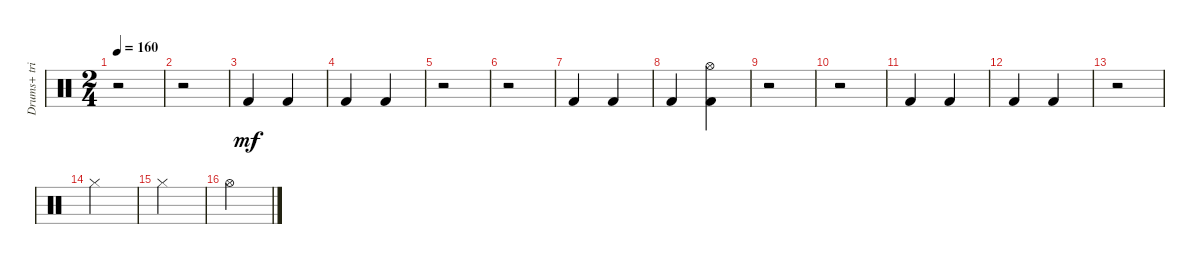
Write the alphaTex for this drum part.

\track ("Drums+ triangle" "Drums+ tri") {instrument percussion}
\staff {score}
\articulation defaults
\ts (2 4)
\tempo 160
\clef neutral
\ks c
r.2{dy mf} |
r.2 |
"Kick (hit) 2".4 "Kick (hit) 2".4 |
"Kick (hit) 2".4 "Kick (hit) 2".4 |
r.2 |
r.2 |
"Kick (hit) 2".4 "Kick (hit) 2".4 |
"Kick (hit) 2".4 ("Kick (hit) 2" "Hi-Hat (open)").4 |
r.2 |
r.2 |
"Kick (hit) 2".4 "Kick (hit) 2".4 |
"Kick (hit) 2".4 "Kick (hit) 2".4 |
r.2 |
"Hi-Hat (closed)".2 |
"Hi-Hat (closed)".2 |
"Hi-Hat (open)".2
